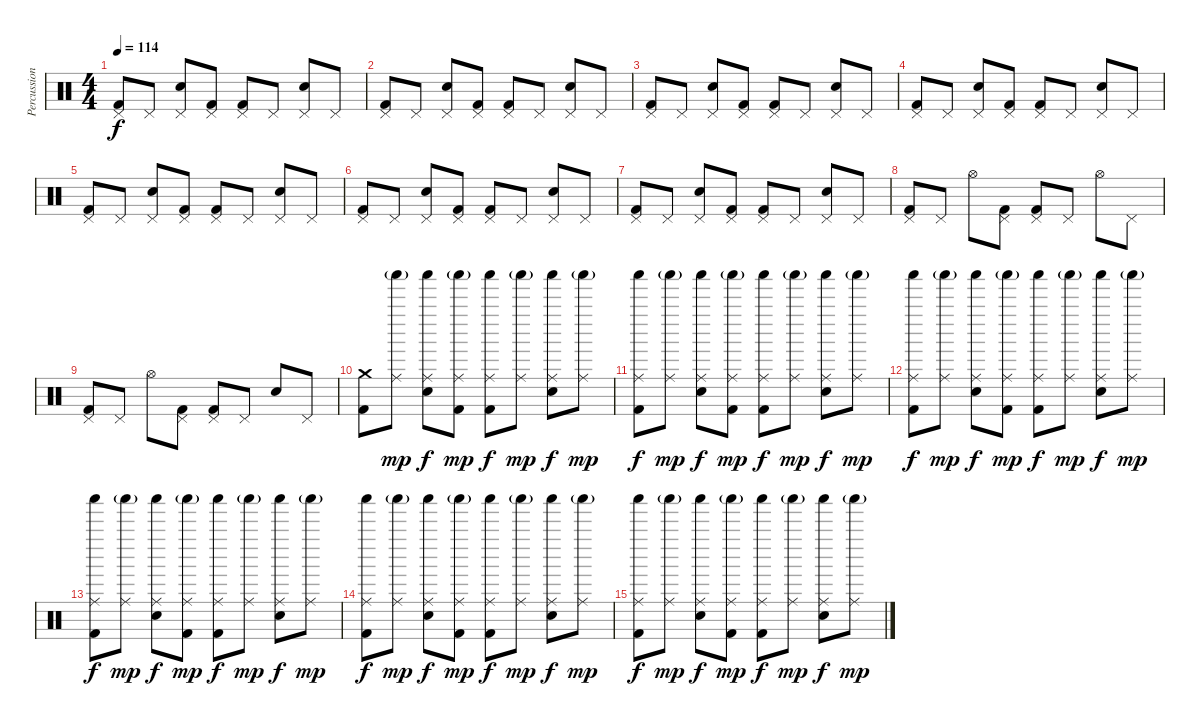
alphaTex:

\track ("Percussion" "Percussion") {instrument percussion}
\staff {score}
\articulation defaults
\ts (4 4)
\tempo 114
\clef neutral
\ks c
("Pedal Hi-Hat (hit)" "Kick (hit) 2").8{dy f} "Pedal Hi-Hat (hit)".8 ("Pedal Hi-Hat (hit)" "Electric Snare (hit)").8 ("Pedal Hi-Hat (hit)" "Kick (hit) 2").8 ("Pedal Hi-Hat (hit)" "Kick (hit) 2").8 "Pedal Hi-Hat (hit)".8 ("Pedal Hi-Hat (hit)" "Electric Snare (hit)").8 "Pedal Hi-Hat (hit)".8 |
("Pedal Hi-Hat (hit)" "Kick (hit) 2").8 "Pedal Hi-Hat (hit)".8 ("Pedal Hi-Hat (hit)" "Electric Snare (hit)").8 ("Pedal Hi-Hat (hit)" "Kick (hit) 2").8 ("Pedal Hi-Hat (hit)" "Kick (hit) 2").8 "Pedal Hi-Hat (hit)".8 ("Pedal Hi-Hat (hit)" "Electric Snare (hit)").8 "Pedal Hi-Hat (hit)".8 |
("Pedal Hi-Hat (hit)" "Kick (hit) 2").8 "Pedal Hi-Hat (hit)".8 ("Pedal Hi-Hat (hit)" "Electric Snare (hit)").8 ("Pedal Hi-Hat (hit)" "Kick (hit) 2").8 ("Pedal Hi-Hat (hit)" "Kick (hit) 2").8 "Pedal Hi-Hat (hit)".8 ("Pedal Hi-Hat (hit)" "Electric Snare (hit)").8 "Pedal Hi-Hat (hit)".8 |
("Pedal Hi-Hat (hit)" "Kick (hit) 2").8 "Pedal Hi-Hat (hit)".8 ("Pedal Hi-Hat (hit)" "Electric Snare (hit)").8 ("Pedal Hi-Hat (hit)" "Kick (hit) 2").8 ("Pedal Hi-Hat (hit)" "Kick (hit) 2").8 "Pedal Hi-Hat (hit)".8 ("Pedal Hi-Hat (hit)" "Electric Snare (hit)").8 "Pedal Hi-Hat (hit)".8 |
("Pedal Hi-Hat (hit)" "Kick (hit) 2").8 "Pedal Hi-Hat (hit)".8 ("Pedal Hi-Hat (hit)" "Electric Snare (hit)").8 ("Pedal Hi-Hat (hit)" "Kick (hit) 2").8 ("Pedal Hi-Hat (hit)" "Kick (hit) 2").8 "Pedal Hi-Hat (hit)".8 ("Pedal Hi-Hat (hit)" "Electric Snare (hit)").8 "Pedal Hi-Hat (hit)".8 |
("Pedal Hi-Hat (hit)" "Kick (hit) 2").8 "Pedal Hi-Hat (hit)".8 ("Pedal Hi-Hat (hit)" "Electric Snare (hit)").8 ("Pedal Hi-Hat (hit)" "Kick (hit) 2").8 ("Pedal Hi-Hat (hit)" "Kick (hit) 2").8 "Pedal Hi-Hat (hit)".8 ("Pedal Hi-Hat (hit)" "Electric Snare (hit)").8 "Pedal Hi-Hat (hit)".8 |
("Pedal Hi-Hat (hit)" "Kick (hit) 2").8 "Pedal Hi-Hat (hit)".8 ("Pedal Hi-Hat (hit)" "Electric Snare (hit)").8 ("Pedal Hi-Hat (hit)" "Kick (hit) 2").8 ("Pedal Hi-Hat (hit)" "Kick (hit) 2").8 "Pedal Hi-Hat (hit)".8 ("Pedal Hi-Hat (hit)" "Electric Snare (hit)").8 "Pedal Hi-Hat (hit)".8 |
("Pedal Hi-Hat (hit)" "Kick (hit) 2").8 "Pedal Hi-Hat (hit)".8 "Hi-Hat (open)".8 ("Pedal Hi-Hat (hit)" "Kick (hit) 2").8 ("Pedal Hi-Hat (hit)" "Kick (hit) 2").8 "Pedal Hi-Hat (hit)".8 "Hi-Hat (open)".8 "Pedal Hi-Hat (hit)".8 |
("Pedal Hi-Hat (hit)" "Kick (hit) 2").8 "Pedal Hi-Hat (hit)".8 "Hi-Hat (open)".8 ("Pedal Hi-Hat (hit)" "Kick (hit) 2").8 ("Pedal Hi-Hat (hit)" "Kick (hit) 2").8 "Pedal Hi-Hat (hit)".8 "Electric Snare (hit)".8 "Pedal Hi-Hat (hit)".8 |
("Crash medium (hit)" "Kick (hit) 2").8 ("Shaker (hit)"{g} "Ride (middle)").8{dy mp} ("Shaker (hit)" "Ride (middle)" "Electric Snare (hit)").8{dy f} ("Shaker (hit)"{g} "Ride (middle)" "Kick (hit) 2").8{dy mp} ("Shaker (hit)" "Ride (middle)" "Kick (hit) 2").8{dy f} ("Shaker (hit)"{g} "Ride (middle)").8{dy mp} ("Shaker (hit)" "Ride (middle)" "Electric Snare (hit)").8{dy f} ("Shaker (hit)"{g} "Ride (middle)").8{dy mp} |
("Shaker (hit)" "Ride (middle)" "Kick (hit) 2").8{dy f} ("Shaker (hit)"{g} "Ride (middle)").8{dy mp} ("Shaker (hit)" "Ride (middle)" "Electric Snare (hit)").8{dy f} ("Shaker (hit)"{g} "Ride (middle)" "Kick (hit) 2").8{dy mp} ("Shaker (hit)" "Ride (middle)" "Kick (hit) 2").8{dy f} ("Shaker (hit)"{g} "Ride (middle)").8{dy mp} ("Shaker (hit)" "Ride (middle)" "Electric Snare (hit)").8{dy f} ("Shaker (hit)"{g} "Ride (middle)").8{dy mp} |
("Shaker (hit)" "Ride (middle)" "Kick (hit) 2").8{dy f} ("Shaker (hit)"{g} "Ride (middle)").8{dy mp} ("Shaker (hit)" "Ride (middle)" "Electric Snare (hit)").8{dy f} ("Shaker (hit)"{g} "Ride (middle)" "Kick (hit) 2").8{dy mp} ("Shaker (hit)" "Ride (middle)" "Kick (hit) 2").8{dy f} ("Shaker (hit)"{g} "Ride (middle)").8{dy mp} ("Shaker (hit)" "Ride (middle)" "Electric Snare (hit)").8{dy f} ("Shaker (hit)"{g} "Ride (middle)").8{dy mp} |
("Shaker (hit)" "Ride (middle)" "Kick (hit) 2").8{dy f} ("Shaker (hit)"{g} "Ride (middle)").8{dy mp} ("Shaker (hit)" "Ride (middle)" "Electric Snare (hit)").8{dy f} ("Shaker (hit)"{g} "Ride (middle)" "Kick (hit) 2").8{dy mp} ("Shaker (hit)" "Ride (middle)" "Kick (hit) 2").8{dy f} ("Shaker (hit)"{g} "Ride (middle)").8{dy mp} ("Shaker (hit)" "Ride (middle)" "Electric Snare (hit)").8{dy f} ("Shaker (hit)"{g} "Ride (middle)").8{dy mp} |
("Shaker (hit)" "Ride (middle)" "Kick (hit) 2").8{dy f} ("Shaker (hit)"{g} "Ride (middle)").8{dy mp} ("Shaker (hit)" "Ride (middle)" "Electric Snare (hit)").8{dy f} ("Shaker (hit)"{g} "Ride (middle)" "Kick (hit) 2").8{dy mp} ("Shaker (hit)" "Ride (middle)" "Kick (hit) 2").8{dy f} ("Shaker (hit)"{g} "Ride (middle)").8{dy mp} ("Shaker (hit)" "Ride (middle)" "Electric Snare (hit)").8{dy f} ("Shaker (hit)"{g} "Ride (middle)").8{dy mp} |
("Shaker (hit)" "Ride (middle)" "Kick (hit) 2").8{dy f} ("Shaker (hit)"{g} "Ride (middle)").8{dy mp} ("Shaker (hit)" "Ride (middle)" "Electric Snare (hit)").8{dy f} ("Shaker (hit)"{g} "Ride (middle)" "Kick (hit) 2").8{dy mp} ("Shaker (hit)" "Ride (middle)" "Kick (hit) 2").8{dy f} ("Shaker (hit)"{g} "Ride (middle)").8{dy mp} ("Shaker (hit)" "Ride (middle)" "Electric Snare (hit)").8{dy f} ("Shaker (hit)"{g} "Ride (middle)").8{dy mp}
